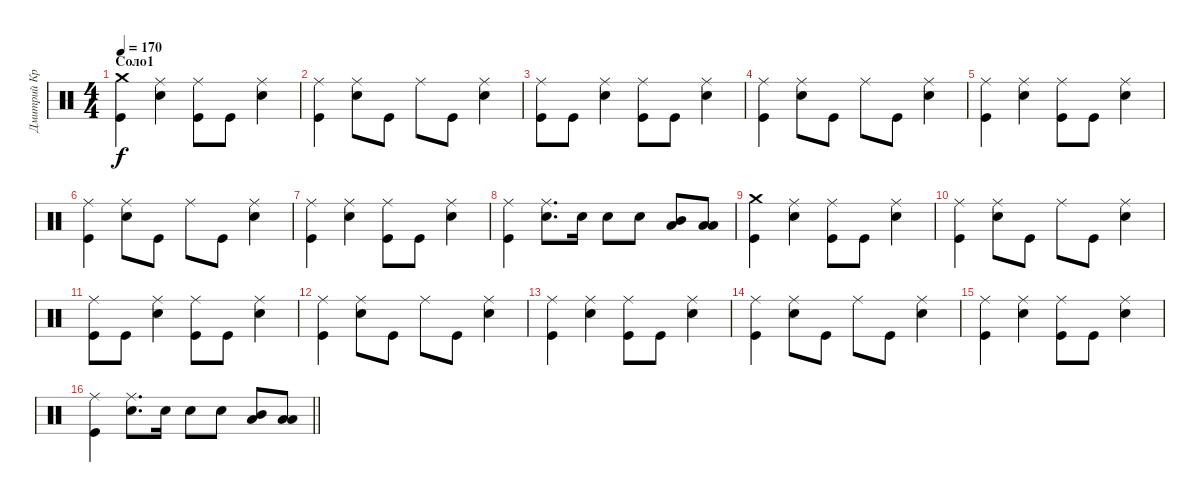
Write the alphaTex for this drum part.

\track ("Дмитрий Кривенков" "Дмитрий Кр") {instrument percussion}
\staff {score}
\articulation defaults
\ts (4 4)
\section ("" "Соло1")
\tempo 170
\clef neutral
\ks c
("Crash medium (hit)" "Kick (hit)").4{dy f} ("Snare (hit) 2" "Ride (middle)").4 ("Kick (hit)" "Ride (middle)").8 "Kick (hit)".8 ("Snare (hit) 2" "Ride (middle)").4 |
("Kick (hit)" "Ride (middle)").4 ("Snare (hit) 2" "Ride (middle)").8 "Kick (hit)".8 "Ride (middle)".8 "Kick (hit)".8 ("Snare (hit) 2" "Ride (middle)").4 |
("Kick (hit)" "Ride (middle)").8 "Kick (hit)".8 ("Snare (hit) 2" "Ride (middle)").4 ("Kick (hit)" "Ride (middle)").8 "Kick (hit)".8 ("Snare (hit) 2" "Ride (middle)").4 |
("Kick (hit)" "Ride (middle)").4 ("Snare (hit) 2" "Ride (middle)").8 "Kick (hit)".8 "Ride (middle)".8 "Kick (hit)".8 ("Snare (hit) 2" "Ride (middle)").4 |
("Kick (hit)" "Ride (middle)").4 ("Snare (hit) 2" "Ride (middle)").4 ("Kick (hit)" "Ride (middle)").8 "Kick (hit)".8 ("Snare (hit) 2" "Ride (middle)").4 |
("Kick (hit)" "Ride (middle)").4 ("Snare (hit) 2" "Ride (middle)").8 "Kick (hit)".8 "Ride (middle)".8 "Kick (hit)".8 ("Snare (hit) 2" "Ride (middle)").4 |
("Kick (hit)" "Ride (middle)").4 ("Snare (hit) 2" "Ride (middle)").4 ("Kick (hit)" "Ride (middle)").8 "Kick (hit)".8 ("Snare (hit) 2" "Ride (middle)").4 |
("Kick (hit)" "Ride (middle)").4 ("Snare (hit) 2" "Ride (middle)").8{d} "Snare (hit) 2".16 "Snare (hit) 2".8 "Snare (hit) 2".8 ("Low Tom (hit)" "Mid Tom (hit)").8 ("Low Floor Tom (hit)" "Low Tom (hit)").8 |
("Crash medium (hit)" "Kick (hit)").4 ("Snare (hit) 2" "Ride (middle)").4 ("Kick (hit)" "Ride (middle)").8 "Kick (hit)".8 ("Snare (hit) 2" "Ride (middle)").4 |
("Kick (hit)" "Ride (middle)").4 ("Snare (hit) 2" "Ride (middle)").8 "Kick (hit)".8 "Ride (middle)".8 "Kick (hit)".8 ("Snare (hit) 2" "Ride (middle)").4 |
("Kick (hit)" "Ride (middle)").8 "Kick (hit)".8 ("Snare (hit) 2" "Ride (middle)").4 ("Kick (hit)" "Ride (middle)").8 "Kick (hit)".8 ("Snare (hit) 2" "Ride (middle)").4 |
("Kick (hit)" "Ride (middle)").4 ("Snare (hit) 2" "Ride (middle)").8 "Kick (hit)".8 "Ride (middle)".8 "Kick (hit)".8 ("Snare (hit) 2" "Ride (middle)").4 |
("Kick (hit)" "Ride (middle)").4 ("Snare (hit) 2" "Ride (middle)").4 ("Kick (hit)" "Ride (middle)").8 "Kick (hit)".8 ("Snare (hit) 2" "Ride (middle)").4 |
("Kick (hit)" "Ride (middle)").4 ("Snare (hit) 2" "Ride (middle)").8 "Kick (hit)".8 "Ride (middle)".8 "Kick (hit)".8 ("Snare (hit) 2" "Ride (middle)").4 |
("Kick (hit)" "Ride (middle)").4 ("Snare (hit) 2" "Ride (middle)").4 ("Kick (hit)" "Ride (middle)").8 "Kick (hit)".8 ("Snare (hit) 2" "Ride (middle)").4 |
\barLineRight lightlight
("Kick (hit)" "Ride (middle)").4 ("Snare (hit) 2" "Ride (middle)").8{d} "Snare (hit) 2".16 "Snare (hit) 2".8 "Snare (hit) 2".8 ("Low Tom (hit)" "Mid Tom (hit)").8 ("Low Floor Tom (hit)" "Low Tom (hit)").8
